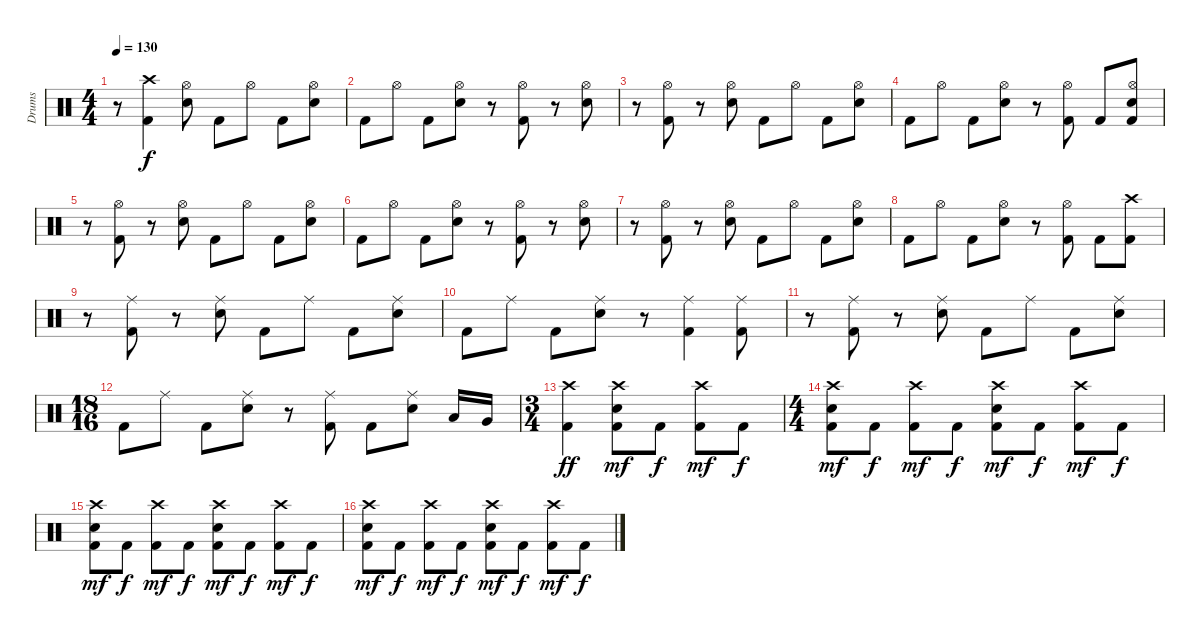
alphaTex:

\track ("Drums" "Drums") {instrument percussion}
\staff {score}
\articulation defaults
\ts (4 4)
\tempo 130
\clef neutral
\ks c
r.8{dy f} ("Crash high (hit)" "Kick (hit) 2").4 ("Hi-Hat (open)" "Electric Snare (hit)").8 "Kick (hit) 2".8 "Hi-Hat (open)".8 "Kick (hit) 2".8 ("Hi-Hat (open)" "Electric Snare (hit)").8 |
"Kick (hit) 2".8 "Hi-Hat (open)".8 "Kick (hit) 2".8 ("Hi-Hat (open)" "Electric Snare (hit)").8 r.8 ("Hi-Hat (open)" "Kick (hit) 2").8 r.8 ("Hi-Hat (open)" "Electric Snare (hit)").8 |
r.8 ("Hi-Hat (open)" "Kick (hit) 2").8 r.8 ("Hi-Hat (open)" "Electric Snare (hit)").8 "Kick (hit) 2".8 "Hi-Hat (open)".8 "Kick (hit) 2".8 ("Hi-Hat (open)" "Electric Snare (hit)").8 |
"Kick (hit) 2".8 "Hi-Hat (open)".8 "Kick (hit) 2".8 ("Hi-Hat (open)" "Electric Snare (hit)").8 r.8 ("Hi-Hat (open)" "Kick (hit) 2").8 "Kick (hit) 2".8 ("Hi-Hat (open)" "Electric Snare (hit)" "Kick (hit) 2").8 |
r.8 ("Hi-Hat (open)" "Kick (hit) 2").8 r.8 ("Hi-Hat (open)" "Electric Snare (hit)").8 "Kick (hit) 2".8 "Hi-Hat (open)".8 "Kick (hit) 2".8 ("Hi-Hat (open)" "Electric Snare (hit)").8 |
"Kick (hit) 2".8 "Hi-Hat (open)".8 "Kick (hit) 2".8 ("Hi-Hat (open)" "Electric Snare (hit)").8 r.8 ("Hi-Hat (open)" "Kick (hit) 2").8 r.8 ("Hi-Hat (open)" "Electric Snare (hit)").8 |
r.8 ("Hi-Hat (open)" "Kick (hit) 2").8 r.8 ("Hi-Hat (open)" "Electric Snare (hit)").8 "Kick (hit) 2".8 "Hi-Hat (open)".8 "Kick (hit) 2".8 ("Hi-Hat (open)" "Electric Snare (hit)").8 |
"Kick (hit) 2".8 "Hi-Hat (open)".8 "Kick (hit) 2".8 ("Hi-Hat (open)" "Electric Snare (hit)").8 r.8 ("Hi-Hat (open)" "Kick (hit) 2").8 "Kick (hit) 2".8 ("Crash high (hit)" "Kick (hit) 2").8 |
r.8 ("Ride (middle)" "Kick (hit) 2").8 r.8 ("Ride (middle)" "Electric Snare (hit)").8 "Kick (hit) 2".8 "Ride (middle)".8 "Kick (hit) 2".8 ("Ride (middle)" "Electric Snare (hit)").8 |
"Kick (hit) 2".8 "Ride (middle)".8 "Kick (hit) 2".8 ("Ride (middle)" "Electric Snare (hit)").8 r.8 ("Ride (middle)" "Kick (hit) 2").4 ("Ride (middle)" "Kick (hit) 2").8 |
r.8 ("Ride (middle)" "Kick (hit) 2").8 r.8 ("Ride (middle)" "Electric Snare (hit)").8 "Kick (hit) 2".8 "Ride (middle)".8 "Kick (hit) 2".8 ("Ride (middle)" "Electric Snare (hit)").8 |
\ts (18 16)
"Kick (hit) 2".8 "Ride (middle)".8 "Kick (hit) 2".8 ("Ride (middle)" "Electric Snare (hit)").8 r.8 ("Ride (middle)" "Kick (hit) 2").8 "Kick (hit) 2".8 ("Ride (middle)" "Electric Snare (hit)").8 "Low Tom (hit)".16 "Very Low Tom (hit)".16 |
\ts (3 4)
("Crash high (hit)" "Kick (hit) 2").4{dy ff} ("Crash high (hit)" "Electric Snare (hit)" "Kick (hit) 2").8{dy mf} "Kick (hit) 2".8{dy f} ("Crash high (hit)" "Kick (hit) 2").8{dy mf} "Kick (hit) 2".8{dy f} |
\ts (4 4)
("Crash high (hit)" "Electric Snare (hit)" "Kick (hit) 2").8{dy mf} "Kick (hit) 2".8{dy f} ("Crash high (hit)" "Kick (hit) 2").8{dy mf} "Kick (hit) 2".8{dy f} ("Crash high (hit)" "Electric Snare (hit)" "Kick (hit) 2").8{dy mf} "Kick (hit) 2".8{dy f} ("Crash high (hit)" "Kick (hit) 2").8{dy mf} "Kick (hit) 2".8{dy f} |
("Crash high (hit)" "Electric Snare (hit)" "Kick (hit) 2").8{dy mf} "Kick (hit) 2".8{dy f} ("Crash high (hit)" "Kick (hit) 2").8{dy mf} "Kick (hit) 2".8{dy f} ("Crash high (hit)" "Electric Snare (hit)" "Kick (hit) 2").8{dy mf} "Kick (hit) 2".8{dy f} ("Crash high (hit)" "Kick (hit) 2").8{dy mf} "Kick (hit) 2".8{dy f} |
("Crash high (hit)" "Electric Snare (hit)" "Kick (hit) 2").8{dy mf} "Kick (hit) 2".8{dy f} ("Crash high (hit)" "Kick (hit) 2").8{dy mf} "Kick (hit) 2".8{dy f} ("Crash high (hit)" "Electric Snare (hit)" "Kick (hit) 2").8{dy mf} "Kick (hit) 2".8{dy f} ("Crash high (hit)" "Kick (hit) 2").8{dy mf} "Kick (hit) 2".8{dy f}
